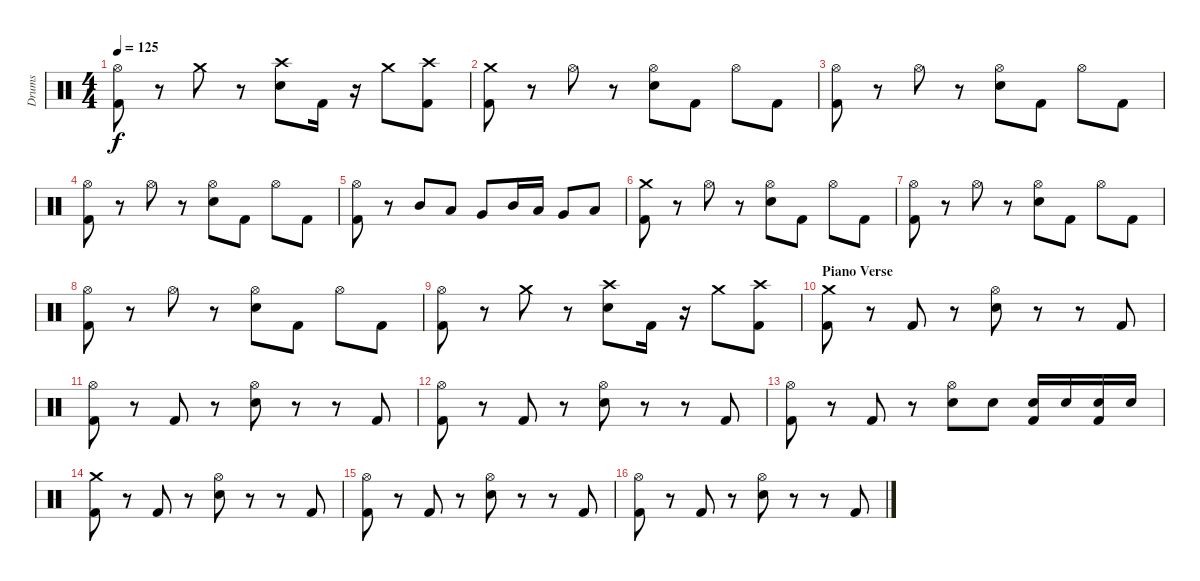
\track ("Drums" "Drums") {instrument percussion}
\staff {score}
\articulation defaults
\ts (4 4)
\tempo 125
\clef neutral
\ks c
("Hi-Hat (open)" "Kick (hit) 2").8{dy f} r.8 "Crash medium (hit)".8 r.8 ("Crash high (hit)" "Electric Snare (hit)").8 "Kick (hit) 2".16 r.16 "Crash medium (hit)".8 ("Crash high (hit)" "Kick (hit) 2").8 |
("Crash medium (hit)" "Kick (hit) 2").8 r.8 "Hi-Hat (open)".8 r.8 ("Hi-Hat (open)" "Electric Snare (hit)").8 "Kick (hit) 2".8 "Hi-Hat (open)".8 "Kick (hit) 2".8 |
("Hi-Hat (open)" "Kick (hit) 2").8 r.8 "Hi-Hat (open)".8 r.8 ("Hi-Hat (open)" "Electric Snare (hit)").8 "Kick (hit) 2".8 "Hi-Hat (open)".8 "Kick (hit) 2".8 |
("Hi-Hat (open)" "Kick (hit) 2").8 r.8 "Hi-Hat (open)".8 r.8 ("Hi-Hat (open)" "Electric Snare (hit)").8 "Kick (hit) 2".8 "Hi-Hat (open)".8 "Kick (hit) 2".8 |
("Hi-Hat (open)" "Kick (hit) 2").8 r.8 "Mid Tom (hit)".8 "Low Tom (hit)".8 "Very Low Tom (hit)".8 "Mid Tom (hit)".16 "Low Tom (hit)".16 "Very Low Tom (hit)".8 "Low Floor Tom (hit)".8 |
("Crash medium (hit)" "Kick (hit) 2").8 r.8 "Hi-Hat (open)".8 r.8 ("Hi-Hat (open)" "Electric Snare (hit)").8 "Kick (hit) 2".8 "Hi-Hat (open)".8 "Kick (hit) 2".8 |
("Hi-Hat (open)" "Kick (hit) 2").8 r.8 "Hi-Hat (open)".8 r.8 ("Hi-Hat (open)" "Electric Snare (hit)").8 "Kick (hit) 2".8 "Hi-Hat (open)".8 "Kick (hit) 2".8 |
("Hi-Hat (open)" "Kick (hit) 2").8 r.8 "Hi-Hat (open)".8 r.8 ("Hi-Hat (open)" "Electric Snare (hit)").8 "Kick (hit) 2".8 "Hi-Hat (open)".8 "Kick (hit) 2".8 |
("Hi-Hat (open)" "Kick (hit) 2").8 r.8 "Crash medium (hit)".8 r.8 ("Crash high (hit)" "Electric Snare (hit)").8 "Kick (hit) 2".16 r.16 "Crash medium (hit)".8 ("Crash high (hit)" "Kick (hit) 2").8 |
\section ("" "Piano Verse")
("Crash medium (hit)" "Kick (hit) 2").8 r.8 "Kick (hit) 2".8 r.8 ("Hi-Hat (open)" "Electric Snare (hit)").8 r.8 r.8 "Kick (hit) 2".8 |
("Hi-Hat (open)" "Kick (hit) 2").8 r.8 "Kick (hit) 2".8 r.8 ("Hi-Hat (open)" "Electric Snare (hit)").8 r.8 r.8 "Kick (hit) 2".8 |
("Hi-Hat (open)" "Kick (hit) 2").8 r.8 "Kick (hit) 2".8 r.8 ("Hi-Hat (open)" "Electric Snare (hit)").8 r.8 r.8 "Kick (hit) 2".8 |
("Hi-Hat (open)" "Kick (hit) 2").8 r.8 "Kick (hit) 2".8 r.8 ("Hi-Hat (open)" "Electric Snare (hit)").8 "Electric Snare (hit)".8 ("Electric Snare (hit)" "Kick (hit) 2").16 "Electric Snare (hit)".16 ("Electric Snare (hit)" "Kick (hit) 2").16 "Electric Snare (hit)".16 |
("Crash medium (hit)" "Kick (hit) 2").8 r.8 "Kick (hit) 2".8 r.8 ("Hi-Hat (open)" "Electric Snare (hit)").8 r.8 r.8 "Kick (hit) 2".8 |
("Hi-Hat (open)" "Kick (hit) 2").8 r.8 "Kick (hit) 2".8 r.8 ("Hi-Hat (open)" "Electric Snare (hit)").8 r.8 r.8 "Kick (hit) 2".8 |
("Hi-Hat (open)" "Kick (hit) 2").8 r.8 "Kick (hit) 2".8 r.8 ("Hi-Hat (open)" "Electric Snare (hit)").8 r.8 r.8 "Kick (hit) 2".8
